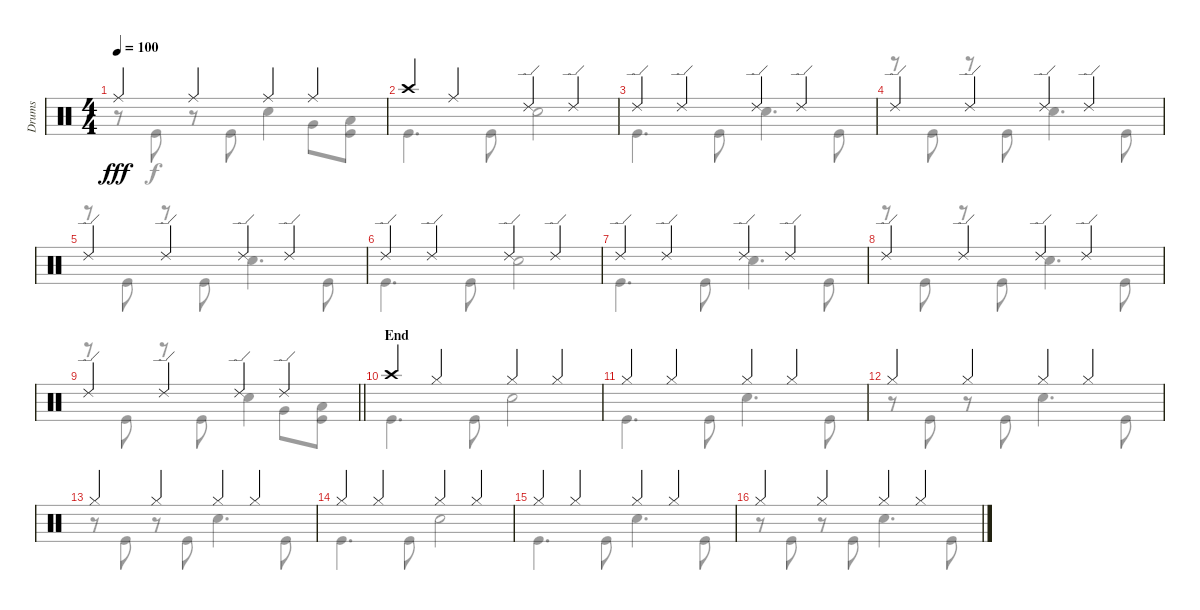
\track ("Drums" "Drums") {instrument percussion}
\staff {score}
\articulation defaults
\voice
\ts (4 4)
\tempo 100
\clef neutral
\ks c "Ride (middle)".4{dy fff} "Ride (middle)".4 "Ride (middle)".4 "Ride (middle)".4
|
"Crash high (hit)".4 "Ride (middle)".4 "Ride (edge) 2".4 "Ride (edge) 2".4 |
"Ride (edge) 2".4 "Ride (edge) 2".4 "Ride (edge) 2".4 "Ride (edge) 2".4 |
"Ride (edge) 2".4 "Ride (edge) 2".4 "Ride (edge) 2".4 "Ride (edge) 2".4 |
"Ride (edge) 2".4 "Ride (edge) 2".4 "Ride (edge) 2".4 "Ride (edge) 2".4 |
"Ride (edge) 2".4 "Ride (edge) 2".4 "Ride (edge) 2".4 "Ride (edge) 2".4 |
"Ride (edge) 2".4 "Ride (edge) 2".4 "Ride (edge) 2".4 "Ride (edge) 2".4 |
"Ride (edge) 2".4 "Ride (edge) 2".4 "Ride (edge) 2".4 "Ride (edge) 2".4 |
\barLineRight lightlight "Ride (edge) 2".4 "Ride (edge) 2".4 "Ride (edge) 2".4 "Ride (edge) 2".4
|
\section ("" "End")
"Crash high (hit)".4 "Hi-Hat (closed)".4 "Hi-Hat (closed)".4 "Hi-Hat (closed)".4 |
"Hi-Hat (closed)".4 "Hi-Hat (closed)".4 "Hi-Hat (closed)".4 "Hi-Hat (closed)".4 |
"Hi-Hat (closed)".4 "Hi-Hat (closed)".4 "Hi-Hat (closed)".4 "Hi-Hat (closed)".4 |
"Hi-Hat (closed)".4 "Hi-Hat (closed)".4 "Hi-Hat (closed)".4 "Hi-Hat (closed)".4 |
"Hi-Hat (closed)".4 "Hi-Hat (closed)".4 "Hi-Hat (closed)".4 "Hi-Hat (closed)".4 |
"Hi-Hat (closed)".4 "Hi-Hat (closed)".4 "Hi-Hat (closed)".4 "Hi-Hat (closed)".4 |
"Hi-Hat (closed)".4 "Hi-Hat (closed)".4 "Hi-Hat (closed)".4 "Hi-Hat (closed)".4
\voice
\clef neutral
\ottava regular
\simile none
\ks c
r.8{dy f} "Kick (hit)".8 r.8 "Kick (hit)".8 "Snare (hit) 2".4 "Very Low Tom (hit)".8 ("Low Floor Tom (hit)" "Kick (hit)").8 |
"Kick (hit)".4{d} "Kick (hit)".8 "Snare (hit) 2".2 |
"Kick (hit)".4{d} "Kick (hit)".8 "Snare (hit) 2".4{d} "Kick (hit)".8 |
r.8 "Kick (hit)".8 r.8 "Kick (hit)".8 "Snare (hit) 2".4{d} "Kick (hit)".8 |
r.8 "Kick (hit)".8 r.8 "Kick (hit)".8 "Snare (hit) 2".4{d} "Kick (hit)".8 |
"Kick (hit)".4{d} "Kick (hit)".8 "Snare (hit) 2".2 |
"Kick (hit)".4{d} "Kick (hit)".8 "Snare (hit) 2".4{d} "Kick (hit)".8 |
r.8 "Kick (hit)".8 r.8 "Kick (hit)".8 "Snare (hit) 2".4{d} "Kick (hit)".8 |
\barLineRight lightlight
r.8 "Kick (hit)".8 r.8 "Kick (hit)".8 "Snare (hit) 2".4 "Very Low Tom (hit)".8 ("Low Floor Tom (hit)" "Kick (hit)").8 |
"Kick (hit)".4{d} "Kick (hit)".8 "Snare (hit) 2".2 |
"Kick (hit)".4{d} "Kick (hit)".8 "Snare (hit) 2".4{d} "Kick (hit)".8 |
r.8 "Kick (hit)".8 r.8 "Kick (hit)".8 "Snare (hit) 2".4{d} "Kick (hit)".8 |
r.8 "Kick (hit)".8 r.8 "Kick (hit)".8 "Snare (hit) 2".4{d} "Kick (hit)".8 |
"Kick (hit)".4{d} "Kick (hit)".8 "Snare (hit) 2".2 |
"Kick (hit)".4{d} "Kick (hit)".8 "Snare (hit) 2".4{d} "Kick (hit)".8 |
r.8 "Kick (hit)".8 r.8 "Kick (hit)".8 "Snare (hit) 2".4{d} "Kick (hit)".8
